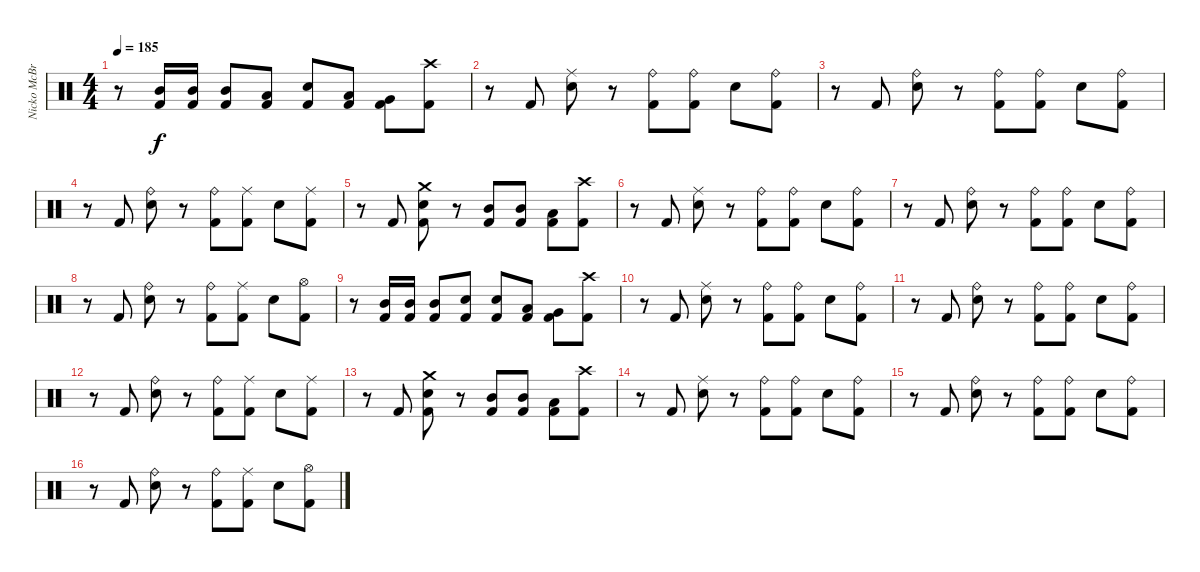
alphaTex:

\track ("Nicko McBrain" "Nicko McBr") {instrument percussion}
\staff {score}
\articulation defaults
\ts (4 4)
\tempo 185
\clef neutral
\ks c
r.8{dy f} ("Mid Tom (hit)" "Kick (hit) 2").16 ("Mid Tom (hit)" "Kick (hit) 2").16 ("Mid Tom (hit)" "Kick (hit) 2").8 ("Low Tom (hit)" "Kick (hit) 2").8 ("Snare (hit) 2" "Kick (hit) 2").8 ("Low Tom (hit)" "Kick (hit) 2").8 ("Very Low Tom (hit)" "Kick (hit) 2").8 ("Crash high (hit)" "Kick (hit) 2").8 |
r.8 "Kick (hit) 2".8 ("Ride (middle)" "Snare (hit) 2").8 r.8 ("Ride (bell)" "Kick (hit) 2").8 ("Ride (bell)" "Kick (hit) 2").8 "Snare (hit) 2".8 ("Ride (bell)" "Kick (hit) 2").8 |
r.8 "Kick (hit) 2".8 ("Ride (bell)" "Snare (hit) 2").8 r.8 ("Ride (bell)" "Kick (hit) 2").8 ("Ride (bell)" "Kick (hit) 2").8 "Snare (hit) 2".8 ("Ride (bell)" "Kick (hit) 2").8 |
r.8 "Kick (hit) 2".8 ("Ride (bell)" "Snare (hit) 2").8 r.8 ("Ride (bell)" "Kick (hit) 2").8 ("Ride (middle)" "Kick (hit) 2").8 "Snare (hit) 2".8 ("Ride (middle)" "Kick (hit) 2").8 |
r.8 "Kick (hit) 2".8 ("Crash medium (hit)" "Snare (hit) 2" "Kick (hit) 2").8 r.8 ("Mid Tom (hit)" "Kick (hit) 2").8 ("Mid Tom (hit)" "Kick (hit) 2").8 ("Low Tom (hit)" "Kick (hit) 2").8 ("Crash high (hit)" "Kick (hit) 2").8 |
r.8 "Kick (hit) 2".8 ("Ride (middle)" "Snare (hit) 2").8 r.8 ("Ride (bell)" "Kick (hit) 2").8 ("Ride (bell)" "Kick (hit) 2").8 "Snare (hit) 2".8 ("Ride (bell)" "Kick (hit) 2").8 |
r.8 "Kick (hit) 2".8 ("Ride (bell)" "Snare (hit) 2").8 r.8 ("Ride (bell)" "Kick (hit) 2").8 ("Ride (bell)" "Kick (hit) 2").8 "Snare (hit) 2".8 ("Ride (bell)" "Kick (hit) 2").8 |
r.8 "Kick (hit) 2".8 ("Ride (bell)" "Snare (hit) 2").8 r.8 ("Ride (bell)" "Kick (hit) 2").8 ("Ride (middle)" "Kick (hit) 2").8 "Snare (hit) 2".8 ("Hi-Hat (open)" "Kick (hit) 2").8 |
r.8 ("Mid Tom (hit)" "Kick (hit) 2").16 ("Mid Tom (hit)" "Kick (hit) 2").16 ("Mid Tom (hit)" "Kick (hit) 2").8 ("Snare (hit) 2" "Kick (hit) 2").8 ("Snare (hit) 2" "Kick (hit) 2").8 ("Low Tom (hit)" "Kick (hit) 2").8 ("Very Low Tom (hit)" "Kick (hit) 2").8 ("Crash high (hit)" "Kick (hit) 2").8 |
r.8 "Kick (hit) 2".8 ("Ride (middle)" "Snare (hit) 2").8 r.8 ("Ride (bell)" "Kick (hit) 2").8 ("Ride (bell)" "Kick (hit) 2").8 "Snare (hit) 2".8 ("Ride (bell)" "Kick (hit) 2").8 |
r.8 "Kick (hit) 2".8 ("Ride (bell)" "Snare (hit) 2").8 r.8 ("Ride (bell)" "Kick (hit) 2").8 ("Ride (bell)" "Kick (hit) 2").8 "Snare (hit) 2".8 ("Ride (bell)" "Kick (hit) 2").8 |
r.8 "Kick (hit) 2".8 ("Ride (bell)" "Snare (hit) 2").8 r.8 ("Ride (bell)" "Kick (hit) 2").8 ("Ride (middle)" "Kick (hit) 2").8 "Snare (hit) 2".8 ("Ride (middle)" "Kick (hit) 2").8 |
r.8 "Kick (hit) 2".8 ("Crash medium (hit)" "Snare (hit) 2" "Kick (hit) 2").8 r.8 ("Mid Tom (hit)" "Kick (hit) 2").8 ("Mid Tom (hit)" "Kick (hit) 2").8 ("Low Tom (hit)" "Kick (hit) 2").8 ("Crash high (hit)" "Kick (hit) 2").8 |
r.8 "Kick (hit) 2".8 ("Ride (middle)" "Snare (hit) 2").8 r.8 ("Ride (bell)" "Kick (hit) 2").8 ("Ride (bell)" "Kick (hit) 2").8 "Snare (hit) 2".8 ("Ride (bell)" "Kick (hit) 2").8 |
r.8 "Kick (hit) 2".8 ("Ride (bell)" "Snare (hit) 2").8 r.8 ("Ride (bell)" "Kick (hit) 2").8 ("Ride (bell)" "Kick (hit) 2").8 "Snare (hit) 2".8 ("Ride (bell)" "Kick (hit) 2").8 |
r.8 "Kick (hit) 2".8 ("Ride (bell)" "Snare (hit) 2").8 r.8 ("Ride (bell)" "Kick (hit) 2").8 ("Ride (middle)" "Kick (hit) 2").8 "Snare (hit) 2".8 ("Hi-Hat (open)" "Kick (hit) 2").8
